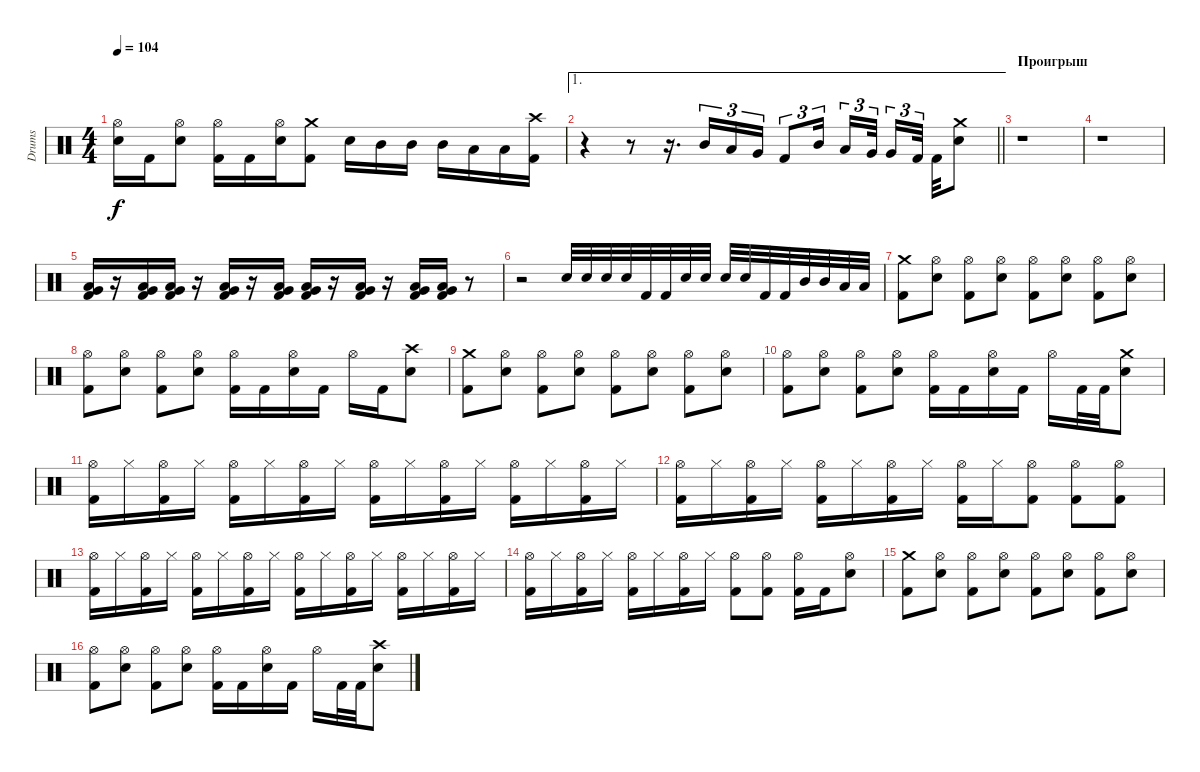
\track ("Drums" "Drums") {instrument percussion}
\staff {score}
\articulation defaults
\ts (4 4)
\tempo 104
\clef neutral
\ks c
("Hi-Hat (open)" "Snare (hit)"{t}).16{dy f} "Kick (hit) 2".16 ("Hi-Hat (open)" "Electric Snare (hit)").8 ("Hi-Hat (open)" "Kick (hit) 2").16 "Kick (hit) 2".16 ("Hi-Hat (open)" "Electric Snare (hit)").16 ("Crash medium (hit)" "Kick (hit) 2").8 "Electric Snare (hit)".16 "Mid Tom (hit)".16 "Mid Tom (hit)".16 "Mid Tom (hit)".16 "Low Tom (hit)".16 "Low Tom (hit)".16 ("Crash high (hit)" "Kick (hit) 2").16 |
\ae 1
\barLineRight lightlight
r.4 r.8 r.16{d} "Mid Tom (hit)".16{tu (3 2)} "Low Tom (hit)".16{tu (3 2)} "Very Low Tom (hit)".16{tu (3 2)} "Kick (hit) 2".8{tu (3 2)} "Mid Tom (hit)".16{tu (3 2)} "Low Tom (hit)".16{tu (3 2)} "Very Low Tom (hit)".32{tu (3 2) beam splitsecondary} "Very Low Tom (hit)".16{tu (3 2)} "Kick (hit) 2".32{tu (3 2) beam splitsecondary} "Kick (hit) 2".32 ("Crash medium (hit)" "Electric Snare (hit)").8 |
\section ("" "Проигрыш")
r.1 |
r.1 |
("Very Low Tom (hit)" "Low Floor Tom (hit)" "Kick (hit) 2").16 r.16 ("Very Low Tom (hit)" "Low Floor Tom (hit)" "Kick (hit) 2").16 ("Very Low Tom (hit)" "Low Floor Tom (hit)" "Kick (hit) 2").16 r.16 ("Very Low Tom (hit)" "Low Floor Tom (hit)" "Kick (hit) 2").16 r.16 ("Very Low Tom (hit)" "Low Floor Tom (hit)" "Kick (hit) 2").16 ("Very Low Tom (hit)" "Low Floor Tom (hit)" "Kick (hit) 2").16 r.16 ("Very Low Tom (hit)" "Low Floor Tom (hit)" "Kick (hit) 2").16 r.16 ("Very Low Tom (hit)" "Low Floor Tom (hit)" "Kick (hit) 2").16 ("Very Low Tom (hit)" "Low Floor Tom (hit)" "Kick (hit) 2").16 r.8 |
r.2 "Electric Snare (hit)".32 "Electric Snare (hit)".32 "Electric Snare (hit)".32 "Electric Snare (hit)".32 "Kick (hit) 2".32 "Kick (hit) 2".32 "Electric Snare (hit)".32 "Electric Snare (hit)".32 "Electric Snare (hit)".32 "Electric Snare (hit)".32 "Kick (hit) 2".32 "Kick (hit) 2".32 "Mid Tom (hit)".32 "Mid Tom (hit)".32 "Low Tom (hit)".32 "Low Tom (hit)".32 |
("Crash medium (hit)" "Kick (hit) 2").8 ("Hi-Hat (open)" "Electric Snare (hit)").8 ("Hi-Hat (open)" "Kick (hit) 2").8 ("Hi-Hat (open)" "Electric Snare (hit)").8 ("Hi-Hat (open)" "Kick (hit) 2").8 ("Hi-Hat (open)" "Electric Snare (hit)").8 ("Hi-Hat (open)" "Kick (hit) 2").8 ("Hi-Hat (open)" "Electric Snare (hit)").8 |
("Hi-Hat (open)" "Kick (hit) 2").8 ("Hi-Hat (open)" "Electric Snare (hit)").8 ("Hi-Hat (open)" "Kick (hit) 2").8 ("Hi-Hat (open)" "Electric Snare (hit)").8 ("Hi-Hat (open)" "Kick (hit) 2").16 "Kick (hit) 2".16 ("Hi-Hat (open)" "Electric Snare (hit)").16 "Kick (hit) 2".16 "Hi-Hat (open)".16 "Kick (hit) 2".16 ("Crash high (hit)" "Electric Snare (hit)").8 |
("Crash medium (hit)" "Kick (hit) 2").8 ("Hi-Hat (open)" "Electric Snare (hit)").8 ("Hi-Hat (open)" "Kick (hit) 2").8 ("Hi-Hat (open)" "Electric Snare (hit)").8 ("Hi-Hat (open)" "Kick (hit) 2").8 ("Hi-Hat (open)" "Electric Snare (hit)").8 ("Hi-Hat (open)" "Kick (hit) 2").8 ("Hi-Hat (open)" "Electric Snare (hit)").8 |
("Hi-Hat (open)" "Kick (hit) 2").8 ("Hi-Hat (open)" "Electric Snare (hit)").8 ("Hi-Hat (open)" "Kick (hit) 2").8 ("Hi-Hat (open)" "Electric Snare (hit)").8 ("Hi-Hat (open)" "Kick (hit) 2").16 "Kick (hit) 2".16 ("Hi-Hat (open)" "Electric Snare (hit)").16 "Kick (hit) 2".16 "Hi-Hat (open)".16 "Kick (hit) 2".32 "Kick (hit) 2".32 ("Crash medium (hit)" "Electric Snare (hit)").8 |
("Hi-Hat (open)" "Kick (hit) 2").16 "Hi-Hat (closed)".16 ("Hi-Hat (open)" "Kick (hit) 2").16 "Hi-Hat (closed)".16 ("Hi-Hat (open)" "Kick (hit) 2").16 "Hi-Hat (closed)".16 ("Hi-Hat (open)" "Kick (hit) 2").16 "Hi-Hat (closed)".16 ("Hi-Hat (open)" "Kick (hit) 2").16 "Hi-Hat (closed)".16 ("Hi-Hat (open)" "Kick (hit) 2").16 "Hi-Hat (closed)".16 ("Hi-Hat (open)" "Kick (hit) 2").16 "Hi-Hat (closed)".16 ("Hi-Hat (open)" "Kick (hit) 2").16 "Hi-Hat (closed)".16 |
("Hi-Hat (open)" "Kick (hit) 2").16 "Hi-Hat (closed)".16 ("Hi-Hat (open)" "Kick (hit) 2").16 "Hi-Hat (closed)".16 ("Hi-Hat (open)" "Kick (hit) 2").16 "Hi-Hat (closed)".16 ("Hi-Hat (open)" "Kick (hit) 2").16 "Hi-Hat (closed)".16 ("Hi-Hat (open)" "Kick (hit) 2").16 "Hi-Hat (closed)".16 ("Hi-Hat (open)" "Kick (hit) 2").8 ("Hi-Hat (open)" "Kick (hit) 2").8 ("Hi-Hat (open)" "Kick (hit) 2").8 |
("Hi-Hat (open)" "Kick (hit) 2").16 "Hi-Hat (closed)".16 ("Hi-Hat (open)" "Kick (hit) 2").16 "Hi-Hat (closed)".16 ("Hi-Hat (open)" "Kick (hit) 2").16 "Hi-Hat (closed)".16 ("Hi-Hat (open)" "Kick (hit) 2").16 "Hi-Hat (closed)".16 ("Hi-Hat (open)" "Kick (hit) 2").16 "Hi-Hat (closed)".16 ("Hi-Hat (open)" "Kick (hit) 2").16 "Hi-Hat (closed)".16 ("Hi-Hat (open)" "Kick (hit) 2").16 "Hi-Hat (closed)".16 ("Hi-Hat (open)" "Kick (hit) 2").16 "Hi-Hat (closed)".16 |
("Hi-Hat (open)" "Kick (hit) 2").16 "Hi-Hat (closed)".16 ("Hi-Hat (open)" "Kick (hit) 2").16 "Hi-Hat (closed)".16 ("Hi-Hat (open)" "Kick (hit) 2").16 "Hi-Hat (closed)".16 ("Hi-Hat (open)" "Kick (hit) 2").16 "Hi-Hat (closed)".16 ("Hi-Hat (open)" "Kick (hit) 2").8 ("Hi-Hat (open)" "Kick (hit) 2").8 ("Hi-Hat (open)" "Kick (hit) 2").16 "Kick (hit) 2".16 ("Hi-Hat (open)" "Electric Snare (hit)").8 |
("Crash medium (hit)" "Kick (hit) 2").8 ("Hi-Hat (open)" "Electric Snare (hit)").8 ("Hi-Hat (open)" "Kick (hit) 2").8 ("Hi-Hat (open)" "Electric Snare (hit)").8 ("Hi-Hat (open)" "Kick (hit) 2").8 ("Hi-Hat (open)" "Electric Snare (hit)").8 ("Hi-Hat (open)" "Kick (hit) 2").8 ("Hi-Hat (open)" "Electric Snare (hit)").8 |
("Hi-Hat (open)" "Kick (hit) 2").8 ("Hi-Hat (open)" "Electric Snare (hit)").8 ("Hi-Hat (open)" "Kick (hit) 2").8 ("Hi-Hat (open)" "Electric Snare (hit)").8 ("Hi-Hat (open)" "Kick (hit) 2").16 "Kick (hit) 2".16 ("Hi-Hat (open)" "Electric Snare (hit)").16 "Kick (hit) 2".16 "Hi-Hat (open)".16 "Kick (hit) 2".32 "Kick (hit) 2".32 ("Crash high (hit)" "Electric Snare (hit)").8
